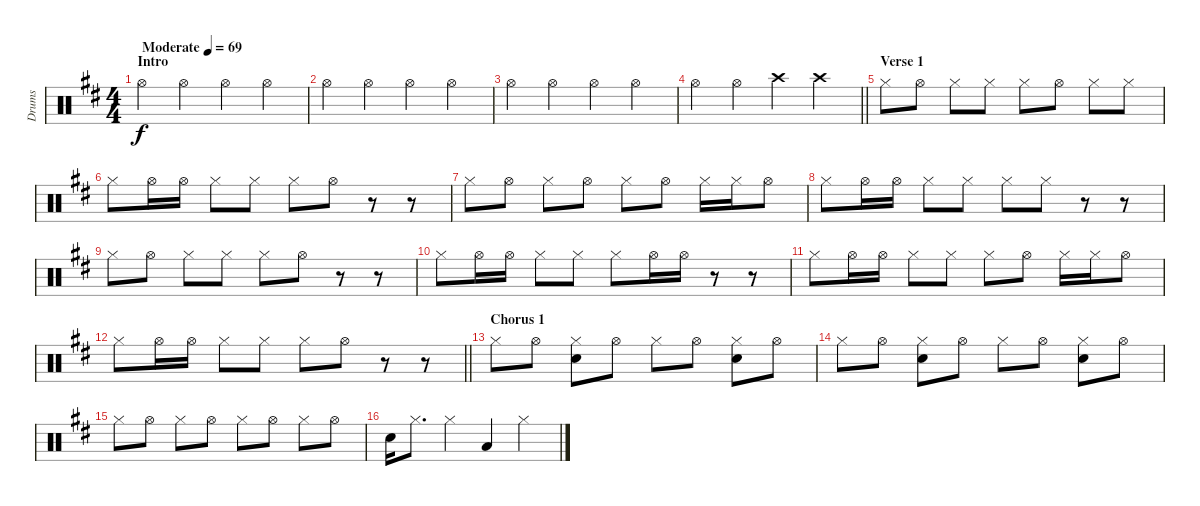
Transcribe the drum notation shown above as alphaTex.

\track ("Drums" "Drums") {instrument percussion}
\staff {score}
\articulation defaults
\ts (4 4)
\section ("" "Intro")
\tempo (69 "Moderate")
\clef neutral
\ks d "Hi-Hat (open)".4{dy f} "Hi-Hat (open)".4 "Hi-Hat (open)".4 "Hi-Hat (open)".4
|
"Hi-Hat (open)".4 "Hi-Hat (open)".4 "Hi-Hat (open)".4 "Hi-Hat (open)".4 |
"Hi-Hat (open)".4 "Hi-Hat (open)".4 "Hi-Hat (open)".4 "Hi-Hat (open)".4 |
\barLineRight lightlight "Hi-Hat (open)".4 "Hi-Hat (open)".4 "Crash high (hit)".4 "Crash high (hit)".4
|
\section ("" "Verse 1")
"Hi-Hat (closed)".8 "Hi-Hat (open)".8 "Hi-Hat (closed)".8 "Hi-Hat (closed)".8 "Hi-Hat (closed)".8 "Hi-Hat (open)".8 "Hi-Hat (closed)".8 "Hi-Hat (closed)".8 |
"Hi-Hat (closed)".8 "Hi-Hat (open)".16 "Hi-Hat (open)".16 "Hi-Hat (closed)".8 "Hi-Hat (closed)".8 "Hi-Hat (closed)".8 "Hi-Hat (open)".8 r.8 r.8 |
"Hi-Hat (closed)".8 "Hi-Hat (open)".8 "Hi-Hat (closed)".8 "Hi-Hat (open)".8 "Hi-Hat (closed)".8 "Hi-Hat (open)".8 "Hi-Hat (closed)".16 "Hi-Hat (closed)".16 "Hi-Hat (open)".8 |
"Hi-Hat (closed)".8 "Hi-Hat (open)".16 "Hi-Hat (open)".16 "Hi-Hat (closed)".8 "Hi-Hat (closed)".8 "Hi-Hat (closed)".8 "Hi-Hat (closed)".8 r.8 r.8 |
"Hi-Hat (closed)".8 "Hi-Hat (open)".8 "Hi-Hat (closed)".8 "Hi-Hat (closed)".8 "Hi-Hat (closed)".8 "Hi-Hat (open)".8 r.8 r.8 |
"Hi-Hat (closed)".8 "Hi-Hat (open)".16 "Hi-Hat (open)".16 "Hi-Hat (closed)".8 "Hi-Hat (closed)".8 "Hi-Hat (closed)".8 "Hi-Hat (open)".16 "Hi-Hat (open)".16 r.8 r.8 |
"Hi-Hat (closed)".8 "Hi-Hat (open)".16 "Hi-Hat (open)".16 "Hi-Hat (closed)".8 "Hi-Hat (closed)".8 "Hi-Hat (closed)".8 "Hi-Hat (open)".8 "Hi-Hat (closed)".16 "Hi-Hat (closed)".16 "Hi-Hat (open)".8 |
\barLineRight lightlight "Hi-Hat (closed)".8 "Hi-Hat (open)".16 "Hi-Hat (open)".16 "Hi-Hat (closed)".8 "Hi-Hat (closed)".8 "Hi-Hat (closed)".8 "Hi-Hat (open)".8
r.8 r.8 |
\section ("" "Chorus 1")
"Hi-Hat (closed)".8 "Hi-Hat (open)".8 ("Hi-Hat (closed)" "Snare (hit) 2").8 "Hi-Hat (open)".8 "Hi-Hat (closed)".8 "Hi-Hat (open)".8 ("Hi-Hat (closed)" "Snare (hit) 2").8 "Hi-Hat (open)".8 |
"Hi-Hat (closed)".8 "Hi-Hat (open)".8 ("Hi-Hat (closed)" "Snare (hit) 2").8 "Hi-Hat (open)".8 "Hi-Hat (closed)".8 "Hi-Hat (open)".8 ("Hi-Hat (closed)" "Snare (hit) 2").8 "Hi-Hat (open)".8 |
"Hi-Hat (closed)".8 "Hi-Hat (open)".8 "Hi-Hat (closed)".8 "Hi-Hat (open)".8 "Hi-Hat (closed)".8 "Hi-Hat (open)".8 "Hi-Hat (closed)".8 "Hi-Hat (open)".8 |
"Snare (hit) 2".16 "Hi-Hat (closed)".8{d} "Hi-Hat (closed)".4 "Low Tom (hit)".4 "Hi-Hat (closed)".4
